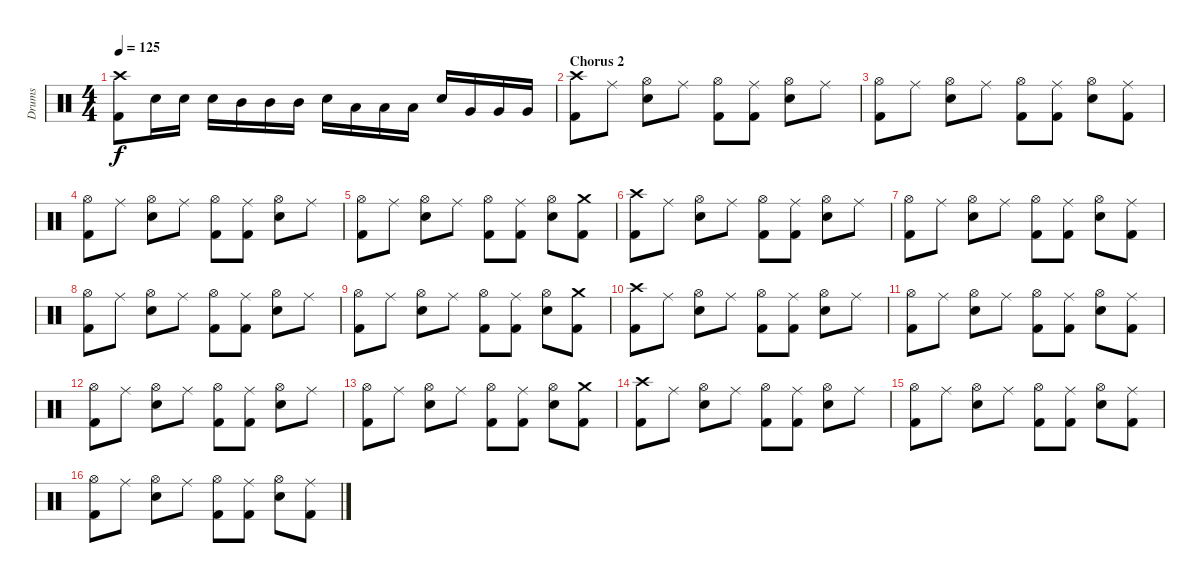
\track ("Drums" "Drums") {instrument percussion}
\staff {score}
\articulation defaults
\ts (4 4)
\tempo 125
\clef neutral
\ks c
("Crash high (hit)" "Kick (hit) 2").8{dy f} "Electric Snare (hit)".16 "Electric Snare (hit)".16 "Electric Snare (hit)".16 "Mid Tom (hit)".16 "Mid Tom (hit)".16 "Mid Tom (hit)".16 "Electric Snare (hit)".16 "Low Tom (hit)".16 "Low Tom (hit)".16 "Low Tom (hit)".16 "Electric Snare (hit)".16 "Very Low Tom (hit)".16 "Very Low Tom (hit)".16 "Very Low Tom (hit)".16 |
\section ("" "Chorus 2")
("Crash high (hit)" "Kick (hit) 2").8 "Ride (middle)".8 ("Hi-Hat (open)" "Electric Snare (hit)").8 "Ride (middle)".8 ("Hi-Hat (open)" "Kick (hit) 2").8 ("Ride (middle)" "Kick (hit) 2").8 ("Hi-Hat (open)" "Electric Snare (hit)").8 "Ride (middle)".8 |
("Hi-Hat (open)" "Kick (hit) 2").8 "Ride (middle)".8 ("Hi-Hat (open)" "Electric Snare (hit)").8 "Ride (middle)".8 ("Hi-Hat (open)" "Kick (hit) 2").8 ("Ride (middle)" "Kick (hit) 2").8 ("Hi-Hat (open)" "Electric Snare (hit)").8 ("Ride (middle)" "Kick (hit) 2").8 |
("Hi-Hat (open)" "Kick (hit) 2").8 "Ride (middle)".8 ("Hi-Hat (open)" "Electric Snare (hit)").8 "Ride (middle)".8 ("Hi-Hat (open)" "Kick (hit) 2").8 ("Ride (middle)" "Kick (hit) 2").8 ("Hi-Hat (open)" "Electric Snare (hit)").8 "Ride (middle)".8 |
("Hi-Hat (open)" "Kick (hit) 2").8 "Ride (middle)".8 ("Hi-Hat (open)" "Electric Snare (hit)").8 "Ride (middle)".8 ("Hi-Hat (open)" "Kick (hit) 2").8 ("Ride (middle)" "Kick (hit) 2").8 ("Hi-Hat (open)" "Electric Snare (hit)").8 ("Crash medium (hit)" "Kick (hit) 2").8 |
("Crash high (hit)" "Kick (hit) 2").8 "Ride (middle)".8 ("Hi-Hat (open)" "Electric Snare (hit)").8 "Ride (middle)".8 ("Hi-Hat (open)" "Kick (hit) 2").8 ("Ride (middle)" "Kick (hit) 2").8 ("Hi-Hat (open)" "Electric Snare (hit)").8 "Ride (middle)".8 |
("Hi-Hat (open)" "Kick (hit) 2").8 "Ride (middle)".8 ("Hi-Hat (open)" "Electric Snare (hit)").8 "Ride (middle)".8 ("Hi-Hat (open)" "Kick (hit) 2").8 ("Ride (middle)" "Kick (hit) 2").8 ("Hi-Hat (open)" "Electric Snare (hit)").8 ("Ride (middle)" "Kick (hit) 2").8 |
("Hi-Hat (open)" "Kick (hit) 2").8 "Ride (middle)".8 ("Hi-Hat (open)" "Electric Snare (hit)").8 "Ride (middle)".8 ("Hi-Hat (open)" "Kick (hit) 2").8 ("Ride (middle)" "Kick (hit) 2").8 ("Hi-Hat (open)" "Electric Snare (hit)").8 "Ride (middle)".8 |
("Hi-Hat (open)" "Kick (hit) 2").8 "Ride (middle)".8 ("Hi-Hat (open)" "Electric Snare (hit)").8 "Ride (middle)".8 ("Hi-Hat (open)" "Kick (hit) 2").8 ("Ride (middle)" "Kick (hit) 2").8 ("Hi-Hat (open)" "Electric Snare (hit)").8 ("Crash medium (hit)" "Kick (hit) 2").8 |
("Crash high (hit)" "Kick (hit) 2").8 "Ride (middle)".8 ("Hi-Hat (open)" "Electric Snare (hit)").8 "Ride (middle)".8 ("Hi-Hat (open)" "Kick (hit) 2").8 ("Ride (middle)" "Kick (hit) 2").8 ("Hi-Hat (open)" "Electric Snare (hit)").8 "Ride (middle)".8 |
("Hi-Hat (open)" "Kick (hit) 2").8 "Ride (middle)".8 ("Hi-Hat (open)" "Electric Snare (hit)").8 "Ride (middle)".8 ("Hi-Hat (open)" "Kick (hit) 2").8 ("Ride (middle)" "Kick (hit) 2").8 ("Hi-Hat (open)" "Electric Snare (hit)").8 ("Ride (middle)" "Kick (hit) 2").8 |
("Hi-Hat (open)" "Kick (hit) 2").8 "Ride (middle)".8 ("Hi-Hat (open)" "Electric Snare (hit)").8 "Ride (middle)".8 ("Hi-Hat (open)" "Kick (hit) 2").8 ("Ride (middle)" "Kick (hit) 2").8 ("Hi-Hat (open)" "Electric Snare (hit)").8 "Ride (middle)".8 |
("Hi-Hat (open)" "Kick (hit) 2").8 "Ride (middle)".8 ("Hi-Hat (open)" "Electric Snare (hit)").8 "Ride (middle)".8 ("Hi-Hat (open)" "Kick (hit) 2").8 ("Ride (middle)" "Kick (hit) 2").8 ("Hi-Hat (open)" "Electric Snare (hit)").8 ("Crash medium (hit)" "Kick (hit) 2").8 |
("Crash high (hit)" "Kick (hit) 2").8 "Ride (middle)".8 ("Hi-Hat (open)" "Electric Snare (hit)").8 "Ride (middle)".8 ("Hi-Hat (open)" "Kick (hit) 2").8 ("Ride (middle)" "Kick (hit) 2").8 ("Hi-Hat (open)" "Electric Snare (hit)").8 "Ride (middle)".8 |
("Hi-Hat (open)" "Kick (hit) 2").8 "Ride (middle)".8 ("Hi-Hat (open)" "Electric Snare (hit)").8 "Ride (middle)".8 ("Hi-Hat (open)" "Kick (hit) 2").8 ("Ride (middle)" "Kick (hit) 2").8 ("Hi-Hat (open)" "Electric Snare (hit)").8 ("Ride (middle)" "Kick (hit) 2").8 |
("Hi-Hat (open)" "Kick (hit) 2").8 "Ride (middle)".8 ("Hi-Hat (open)" "Electric Snare (hit)").8 "Ride (middle)".8 ("Hi-Hat (open)" "Kick (hit) 2").8 ("Ride (middle)" "Kick (hit) 2").8 ("Hi-Hat (open)" "Electric Snare (hit)").8 ("Ride (middle)" "Kick (hit) 2").8
